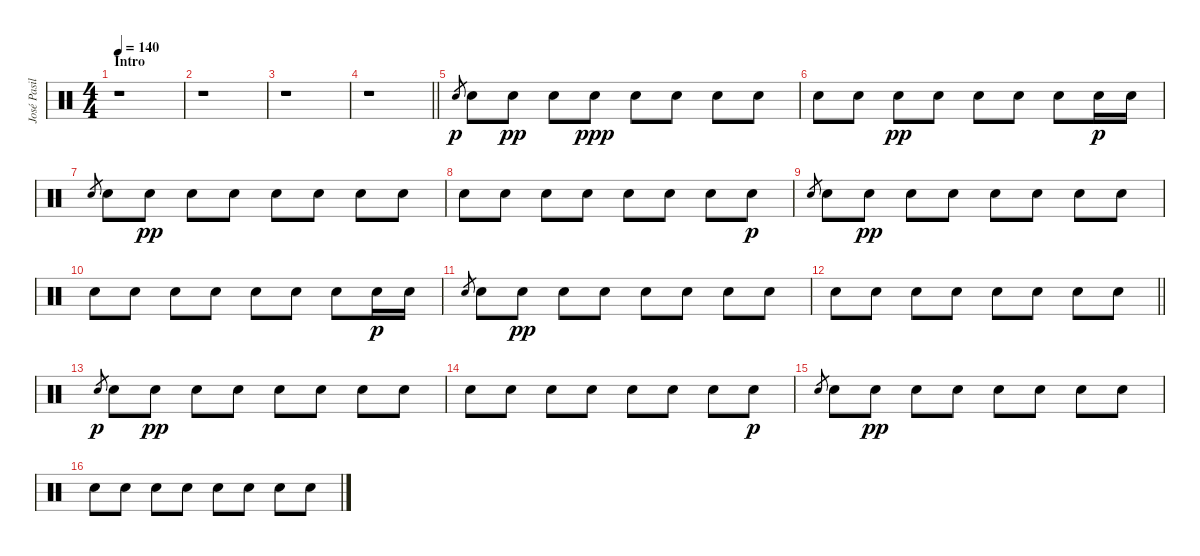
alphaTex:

\track ("José Pasillas [Drums]" "José Pasil") {instrument percussion}
\staff {score}
\articulation defaults
\ts (4 4)
\section ("" "Intro")
\tempo 140
\clef neutral
\ks c
r.1{dy p} |
r.1 |
r.1 |
\barLineRight lightlight
r.1 |
"Electric Snare (hit)".8{gr} "Electric Snare (hit)".8 "Electric Snare (hit)".8{dy pp} "Electric Snare (hit)".8 "Electric Snare (hit)".8{dy ppp} "Electric Snare (hit)".8 "Electric Snare (hit)".8 "Electric Snare (hit)".8 "Electric Snare (hit)".8 |
"Electric Snare (hit)".8 "Electric Snare (hit)".8 "Electric Snare (hit)".8{dy pp} "Electric Snare (hit)".8 "Electric Snare (hit)".8 "Electric Snare (hit)".8 "Electric Snare (hit)".8 "Electric Snare (hit)".16{dy p} "Electric Snare (hit)".16 |
"Electric Snare (hit)".8{gr} "Electric Snare (hit)".8 "Electric Snare (hit)".8{dy pp} "Electric Snare (hit)".8 "Electric Snare (hit)".8 "Electric Snare (hit)".8 "Electric Snare (hit)".8 "Electric Snare (hit)".8 "Electric Snare (hit)".8 |
"Electric Snare (hit)".8 "Electric Snare (hit)".8 "Electric Snare (hit)".8 "Electric Snare (hit)".8 "Electric Snare (hit)".8 "Electric Snare (hit)".8 "Electric Snare (hit)".8 "Electric Snare (hit)".8{dy p} |
"Electric Snare (hit)".8{gr} "Electric Snare (hit)".8 "Electric Snare (hit)".8{dy pp} "Electric Snare (hit)".8 "Electric Snare (hit)".8 "Electric Snare (hit)".8 "Electric Snare (hit)".8 "Electric Snare (hit)".8 "Electric Snare (hit)".8 |
"Electric Snare (hit)".8 "Electric Snare (hit)".8 "Electric Snare (hit)".8 "Electric Snare (hit)".8 "Electric Snare (hit)".8 "Electric Snare (hit)".8 "Electric Snare (hit)".8 "Electric Snare (hit)".16{dy p} "Electric Snare (hit)".16 |
"Electric Snare (hit)".8{gr} "Electric Snare (hit)".8 "Electric Snare (hit)".8{dy pp} "Electric Snare (hit)".8 "Electric Snare (hit)".8 "Electric Snare (hit)".8 "Electric Snare (hit)".8 "Electric Snare (hit)".8 "Electric Snare (hit)".8 |
\barLineRight lightlight "Electric Snare (hit)".8 "Electric Snare (hit)".8 "Electric Snare (hit)".8 "Electric Snare (hit)".8 "Electric Snare (hit)".8 "Electric Snare (hit)".8 "Electric Snare (hit)".8 "Electric Snare (hit)".8
|
"Electric Snare (hit)".8{gr dy p} "Electric Snare (hit)".8 "Electric Snare (hit)".8{dy pp} "Electric Snare (hit)".8 "Electric Snare (hit)".8 "Electric Snare (hit)".8 "Electric Snare (hit)".8 "Electric Snare (hit)".8 "Electric Snare (hit)".8 |
"Electric Snare (hit)".8 "Electric Snare (hit)".8 "Electric Snare (hit)".8 "Electric Snare (hit)".8 "Electric Snare (hit)".8 "Electric Snare (hit)".8 "Electric Snare (hit)".8 "Electric Snare (hit)".8{dy p} |
"Electric Snare (hit)".8{gr} "Electric Snare (hit)".8 "Electric Snare (hit)".8{dy pp} "Electric Snare (hit)".8 "Electric Snare (hit)".8 "Electric Snare (hit)".8 "Electric Snare (hit)".8 "Electric Snare (hit)".8 "Electric Snare (hit)".8 |
"Electric Snare (hit)".8 "Electric Snare (hit)".8 "Electric Snare (hit)".8 "Electric Snare (hit)".8 "Electric Snare (hit)".8 "Electric Snare (hit)".8 "Electric Snare (hit)".8 "Electric Snare (hit)".8
